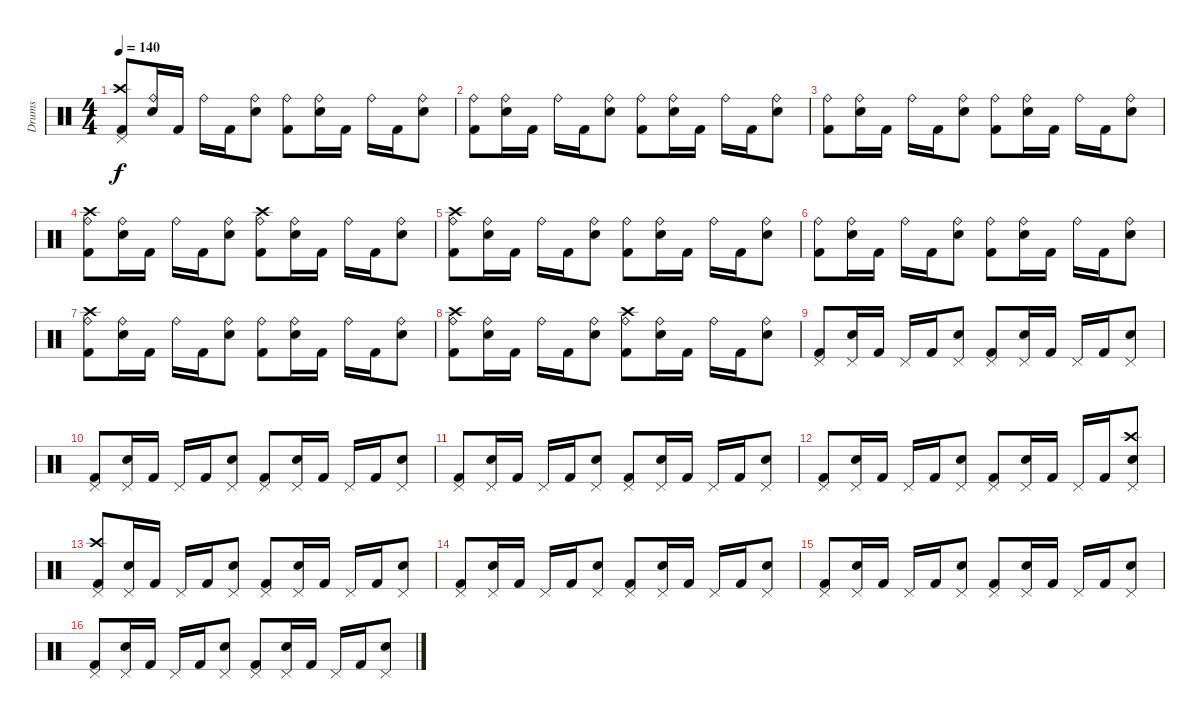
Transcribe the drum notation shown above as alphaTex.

\track ("Drums" "Drums") {instrument percussion}
\staff {score}
\articulation defaults
\ts (4 4)
\tempo 140
\clef neutral
\ks c
("Pedal Hi-Hat (hit)" "Crash high (hit)" "Kick (hit) 2").8{dy f} ("Ride (bell)" "Electric Snare (hit)").16 "Kick (hit) 2".16 "Ride (bell)".16 "Kick (hit) 2".16 ("Ride (bell)" "Electric Snare (hit)").8 ("Ride (bell)" "Kick (hit) 2").8 ("Ride (bell)" "Electric Snare (hit)").16 "Kick (hit) 2".16 "Ride (bell)".16 "Kick (hit) 2".16 ("Ride (bell)" "Electric Snare (hit)").8 |
("Ride (bell)" "Kick (hit) 2").8 ("Ride (bell)" "Electric Snare (hit)").16 "Kick (hit) 2".16 "Ride (bell)".16 "Kick (hit) 2".16 ("Ride (bell)" "Electric Snare (hit)").8 ("Ride (bell)" "Kick (hit) 2").8 ("Ride (bell)" "Electric Snare (hit)").16 "Kick (hit) 2".16 "Ride (bell)".16 "Kick (hit) 2".16 ("Ride (bell)" "Electric Snare (hit)").8 |
("Ride (bell)" "Kick (hit) 2").8 ("Ride (bell)" "Electric Snare (hit)").16 "Kick (hit) 2".16 "Ride (bell)".16 "Kick (hit) 2".16 ("Ride (bell)" "Electric Snare (hit)").8 ("Ride (bell)" "Kick (hit) 2").8 ("Ride (bell)" "Electric Snare (hit)").16 "Kick (hit) 2".16 "Ride (bell)".16 "Kick (hit) 2".16 ("Ride (bell)" "Electric Snare (hit)").8 |
("Ride (bell)" "Crash high (hit)" "Kick (hit) 2").8 ("Ride (bell)" "Electric Snare (hit)").16 "Kick (hit) 2".16 "Ride (bell)".16 "Kick (hit) 2".16 ("Ride (bell)" "Electric Snare (hit)").8 ("Ride (bell)" "Crash high (hit)" "Kick (hit) 2").8 ("Ride (bell)" "Electric Snare (hit)").16 "Kick (hit) 2".16 "Ride (bell)".16 "Kick (hit) 2".16 ("Ride (bell)" "Electric Snare (hit)").8 |
("Ride (bell)" "Crash high (hit)" "Kick (hit) 2").8 ("Ride (bell)" "Electric Snare (hit)").16 "Kick (hit) 2".16 "Ride (bell)".16 "Kick (hit) 2".16 ("Ride (bell)" "Electric Snare (hit)").8 ("Ride (bell)" "Kick (hit) 2").8 ("Ride (bell)" "Electric Snare (hit)").16 "Kick (hit) 2".16 "Ride (bell)".16 "Kick (hit) 2".16 ("Ride (bell)" "Electric Snare (hit)").8 |
("Ride (bell)" "Kick (hit) 2").8 ("Ride (bell)" "Electric Snare (hit)").16 "Kick (hit) 2".16 "Ride (bell)".16 "Kick (hit) 2".16 ("Ride (bell)" "Electric Snare (hit)").8 ("Ride (bell)" "Kick (hit) 2").8 ("Ride (bell)" "Electric Snare (hit)").16 "Kick (hit) 2".16 "Ride (bell)".16 "Kick (hit) 2".16 ("Ride (bell)" "Electric Snare (hit)").8 |
("Ride (bell)" "Crash high (hit)" "Kick (hit) 2").8 ("Ride (bell)" "Electric Snare (hit)").16 "Kick (hit) 2".16 "Ride (bell)".16 "Kick (hit) 2".16 ("Ride (bell)" "Electric Snare (hit)").8 ("Ride (bell)" "Kick (hit) 2").8 ("Ride (bell)" "Electric Snare (hit)").16 "Kick (hit) 2".16 "Ride (bell)".16 "Kick (hit) 2".16 ("Ride (bell)" "Electric Snare (hit)").8 |
("Ride (bell)" "Crash high (hit)" "Kick (hit) 2").8 ("Ride (bell)" "Electric Snare (hit)").16 "Kick (hit) 2".16 "Ride (bell)".16 "Kick (hit) 2".16 ("Ride (bell)" "Electric Snare (hit)").8 ("Ride (bell)" "Crash high (hit)" "Kick (hit) 2").8 ("Ride (bell)" "Electric Snare (hit)").16 "Kick (hit) 2".16 "Ride (bell)".16 "Kick (hit) 2".16 ("Ride (bell)" "Electric Snare (hit)").8 |
("Pedal Hi-Hat (hit)" "Kick (hit) 2").8 ("Pedal Hi-Hat (hit)" "Electric Snare (hit)").16 "Kick (hit) 2".16 "Pedal Hi-Hat (hit)".16 "Kick (hit) 2".16 ("Pedal Hi-Hat (hit)" "Electric Snare (hit)").8 ("Pedal Hi-Hat (hit)" "Kick (hit) 2").8 ("Pedal Hi-Hat (hit)" "Electric Snare (hit)").16 "Kick (hit) 2".16 "Pedal Hi-Hat (hit)".16 "Kick (hit) 2".16 ("Pedal Hi-Hat (hit)" "Electric Snare (hit)").8 |
("Pedal Hi-Hat (hit)" "Kick (hit) 2").8 ("Pedal Hi-Hat (hit)" "Electric Snare (hit)").16 "Kick (hit) 2".16 "Pedal Hi-Hat (hit)".16 "Kick (hit) 2".16 ("Pedal Hi-Hat (hit)" "Electric Snare (hit)").8 ("Pedal Hi-Hat (hit)" "Kick (hit) 2").8 ("Pedal Hi-Hat (hit)" "Electric Snare (hit)").16 "Kick (hit) 2".16 "Pedal Hi-Hat (hit)".16 "Kick (hit) 2".16 ("Pedal Hi-Hat (hit)" "Electric Snare (hit)").8 |
("Pedal Hi-Hat (hit)" "Kick (hit) 2").8 ("Pedal Hi-Hat (hit)" "Electric Snare (hit)").16 "Kick (hit) 2".16 "Pedal Hi-Hat (hit)".16 "Kick (hit) 2".16 ("Pedal Hi-Hat (hit)" "Electric Snare (hit)").8 ("Pedal Hi-Hat (hit)" "Kick (hit) 2").8 ("Pedal Hi-Hat (hit)" "Electric Snare (hit)").16 "Kick (hit) 2".16 "Pedal Hi-Hat (hit)".16 "Kick (hit) 2".16 ("Pedal Hi-Hat (hit)" "Electric Snare (hit)").8 |
("Pedal Hi-Hat (hit)" "Kick (hit) 2").8 ("Pedal Hi-Hat (hit)" "Electric Snare (hit)").16 "Kick (hit) 2".16 "Pedal Hi-Hat (hit)".16 "Kick (hit) 2".16 ("Pedal Hi-Hat (hit)" "Electric Snare (hit)").8 ("Pedal Hi-Hat (hit)" "Kick (hit) 2").8 ("Pedal Hi-Hat (hit)" "Electric Snare (hit)").16 "Kick (hit) 2".16 "Pedal Hi-Hat (hit)".16 "Kick (hit) 2".16 ("Pedal Hi-Hat (hit)" "Electric Snare (hit)" "Crash high (hit)").8 |
("Pedal Hi-Hat (hit)" "Crash high (hit)" "Kick (hit) 2").8 ("Pedal Hi-Hat (hit)" "Electric Snare (hit)").16 "Kick (hit) 2".16 "Pedal Hi-Hat (hit)".16 "Kick (hit) 2".16 ("Pedal Hi-Hat (hit)" "Electric Snare (hit)").8 ("Pedal Hi-Hat (hit)" "Kick (hit) 2").8 ("Pedal Hi-Hat (hit)" "Electric Snare (hit)").16 "Kick (hit) 2".16 "Pedal Hi-Hat (hit)".16 "Kick (hit) 2".16 ("Pedal Hi-Hat (hit)" "Electric Snare (hit)").8 |
("Pedal Hi-Hat (hit)" "Kick (hit) 2").8 ("Pedal Hi-Hat (hit)" "Electric Snare (hit)").16 "Kick (hit) 2".16 "Pedal Hi-Hat (hit)".16 "Kick (hit) 2".16 ("Pedal Hi-Hat (hit)" "Electric Snare (hit)").8 ("Pedal Hi-Hat (hit)" "Kick (hit) 2").8 ("Pedal Hi-Hat (hit)" "Electric Snare (hit)").16 "Kick (hit) 2".16 "Pedal Hi-Hat (hit)".16 "Kick (hit) 2".16 ("Pedal Hi-Hat (hit)" "Electric Snare (hit)").8 |
("Pedal Hi-Hat (hit)" "Kick (hit) 2").8 ("Pedal Hi-Hat (hit)" "Electric Snare (hit)").16 "Kick (hit) 2".16 "Pedal Hi-Hat (hit)".16 "Kick (hit) 2".16 ("Pedal Hi-Hat (hit)" "Electric Snare (hit)").8 ("Pedal Hi-Hat (hit)" "Kick (hit) 2").8 ("Pedal Hi-Hat (hit)" "Electric Snare (hit)").16 "Kick (hit) 2".16 "Pedal Hi-Hat (hit)".16 "Kick (hit) 2".16 ("Pedal Hi-Hat (hit)" "Electric Snare (hit)").8 |
("Pedal Hi-Hat (hit)" "Kick (hit) 2").8 ("Pedal Hi-Hat (hit)" "Electric Snare (hit)").16 "Kick (hit) 2".16 "Pedal Hi-Hat (hit)".16 "Kick (hit) 2".16 ("Pedal Hi-Hat (hit)" "Electric Snare (hit)").8 ("Pedal Hi-Hat (hit)" "Kick (hit) 2").8 ("Pedal Hi-Hat (hit)" "Electric Snare (hit)").16 "Kick (hit) 2".16 "Pedal Hi-Hat (hit)".16 "Kick (hit) 2".16 ("Pedal Hi-Hat (hit)" "Electric Snare (hit)").8
